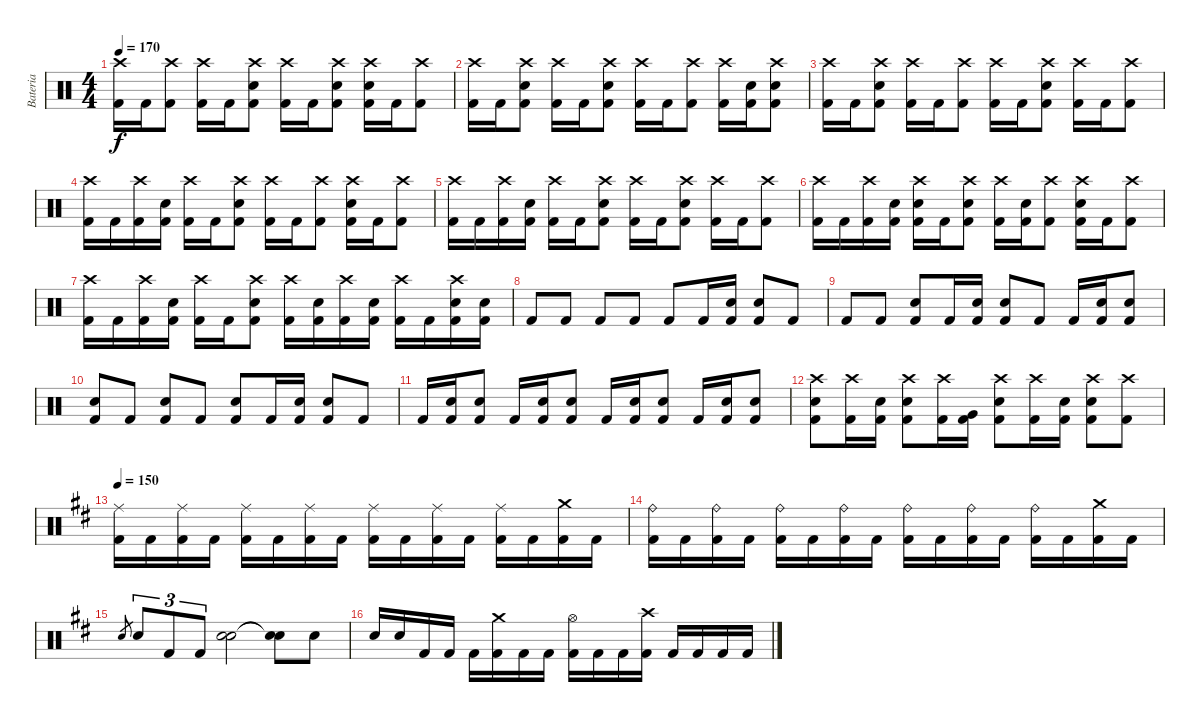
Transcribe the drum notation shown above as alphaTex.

\track ("Bateria" "Bateria") {instrument percussion}
\staff {score}
\articulation defaults
\ts (4 4)
\tempo 170
\clef neutral
\ks c
("Crash high (hit)" "Kick (hit) 2").16{dy f} "Kick (hit) 2".16 ("Crash high (hit)" "Kick (hit) 2").8 ("Crash high (hit)" "Kick (hit) 2").16 "Kick (hit) 2".16 ("Crash high (hit)" "Snare (hit) 2" "Kick (hit) 2").8 ("Crash high (hit)" "Kick (hit) 2").16 "Kick (hit) 2".16 ("Crash high (hit)" "Snare (hit) 2" "Kick (hit) 2").8 ("Crash high (hit)" "Snare (hit) 2" "Kick (hit) 2").16 "Kick (hit) 2".16 ("Crash high (hit)" "Kick (hit) 2").8 |
("Crash high (hit)" "Kick (hit) 2").16 "Kick (hit) 2".16 ("Crash high (hit)" "Snare (hit) 2" "Kick (hit) 2").8 ("Crash high (hit)" "Kick (hit) 2").16 "Kick (hit) 2".16 ("Crash high (hit)" "Snare (hit) 2" "Kick (hit) 2").8 ("Crash high (hit)" "Kick (hit) 2").16 "Kick (hit) 2".16 ("Crash high (hit)" "Kick (hit) 2").8 ("Crash high (hit)" "Kick (hit) 2").16 ("Snare (hit) 2" "Kick (hit) 2").16 ("Crash high (hit)" "Snare (hit) 2" "Kick (hit) 2").8 |
("Crash high (hit)" "Kick (hit) 2").16 "Kick (hit) 2".16 ("Crash high (hit)" "Snare (hit) 2" "Kick (hit) 2").8 ("Crash high (hit)" "Kick (hit) 2").16 "Kick (hit) 2".16 ("Crash high (hit)" "Kick (hit) 2").8 ("Crash high (hit)" "Kick (hit) 2").16 "Kick (hit) 2".16 ("Crash high (hit)" "Snare (hit) 2" "Kick (hit) 2").8 ("Crash high (hit)" "Kick (hit) 2").16 "Kick (hit) 2".16 ("Crash high (hit)" "Kick (hit) 2").8 |
("Crash high (hit)" "Kick (hit) 2").16 "Kick (hit) 2".16 ("Crash high (hit)" "Kick (hit) 2").16 ("Snare (hit) 2" "Kick (hit) 2").16 ("Crash high (hit)" "Kick (hit) 2").16 "Kick (hit) 2".16 ("Crash high (hit)" "Snare (hit) 2" "Kick (hit) 2").8 ("Crash high (hit)" "Kick (hit) 2").16 "Kick (hit) 2".16 ("Crash high (hit)" "Kick (hit) 2").8 ("Crash high (hit)" "Snare (hit) 2" "Kick (hit) 2").16 "Kick (hit) 2".16 ("Crash high (hit)" "Kick (hit) 2").8 |
("Crash high (hit)" "Kick (hit) 2").16 "Kick (hit) 2".16 ("Crash high (hit)" "Kick (hit) 2").16 ("Snare (hit) 2" "Kick (hit) 2").16 ("Crash high (hit)" "Kick (hit) 2").16 "Kick (hit) 2".16 ("Crash high (hit)" "Snare (hit) 2" "Kick (hit) 2").8 ("Crash high (hit)" "Kick (hit) 2").16 "Kick (hit) 2".16 ("Crash high (hit)" "Snare (hit) 2" "Kick (hit) 2").8 ("Crash high (hit)" "Kick (hit) 2").16 "Kick (hit) 2".16 ("Crash high (hit)" "Kick (hit) 2").8 |
("Crash high (hit)" "Kick (hit) 2").16 "Kick (hit) 2".16 ("Crash high (hit)" "Kick (hit) 2").16 ("Snare (hit) 2" "Kick (hit) 2").16 ("Crash high (hit)" "Snare (hit) 2" "Kick (hit) 2").16 "Kick (hit) 2".16 ("Crash high (hit)" "Snare (hit) 2" "Kick (hit) 2").8 ("Crash high (hit)" "Kick (hit) 2").16 ("Snare (hit) 2" "Kick (hit) 2").16 ("Crash high (hit)" "Kick (hit) 2").8 ("Crash high (hit)" "Snare (hit) 2" "Kick (hit) 2").16 "Kick (hit) 2".16 ("Crash high (hit)" "Kick (hit) 2").8 |
("Crash high (hit)" "Kick (hit) 2").16 "Kick (hit) 2".16 ("Crash high (hit)" "Kick (hit) 2").16 ("Snare (hit) 2" "Kick (hit) 2").16 ("Crash high (hit)" "Kick (hit) 2").16 "Kick (hit) 2".16 ("Crash high (hit)" "Snare (hit) 2" "Kick (hit) 2").8 ("Crash high (hit)" "Kick (hit) 2").16 ("Snare (hit) 2" "Kick (hit) 2").16 ("Crash high (hit)" "Kick (hit) 2").16 ("Snare (hit) 2" "Kick (hit) 2").16 ("Crash high (hit)" "Kick (hit) 2").16 "Kick (hit) 2".16 ("Crash high (hit)" "Snare (hit) 2" "Kick (hit) 2").16 ("Snare (hit) 2" "Kick (hit) 2").16 |
"Kick (hit) 2".8 "Kick (hit) 2".8 "Kick (hit) 2".8 "Kick (hit) 2".8 "Kick (hit) 2".8 "Kick (hit) 2".16 ("Snare (hit) 2" "Kick (hit) 2").16 ("Snare (hit) 2" "Kick (hit) 2").8 "Kick (hit) 2".8 |
"Kick (hit) 2".8 "Kick (hit) 2".8 ("Snare (hit) 2" "Kick (hit) 2").8 "Kick (hit) 2".16 ("Snare (hit) 2" "Kick (hit) 2").16 ("Snare (hit) 2" "Kick (hit) 2").8 "Kick (hit) 2".8 "Kick (hit) 2".16 ("Snare (hit) 2" "Kick (hit) 2").16 ("Snare (hit) 2" "Kick (hit) 2").8 |
("Snare (hit) 2" "Kick (hit) 2").8 "Kick (hit) 2".8 ("Snare (hit) 2" "Kick (hit) 2").8 "Kick (hit) 2".8 ("Snare (hit) 2" "Kick (hit) 2").8 "Kick (hit) 2".16 ("Snare (hit) 2" "Kick (hit) 2").16 ("Snare (hit) 2" "Kick (hit) 2").8 "Kick (hit) 2".8 |
"Kick (hit) 2".16 ("Snare (hit) 2" "Kick (hit) 2").16 ("Snare (hit) 2" "Kick (hit) 2").8 "Kick (hit) 2".16 ("Snare (hit) 2" "Kick (hit) 2").16 ("Snare (hit) 2" "Kick (hit) 2").8 "Kick (hit) 2".16 ("Snare (hit) 2" "Kick (hit) 2").16 ("Snare (hit) 2" "Kick (hit) 2").8 "Kick (hit) 2".16 ("Snare (hit) 2" "Kick (hit) 2").16 ("Snare (hit) 2" "Kick (hit) 2").8 |
("Crash high (hit)" "Snare (hit) 2" "Kick (hit) 2").8 ("Crash high (hit)" "Kick (hit) 2").16 ("Snare (hit) 2" "Kick (hit) 2").16 ("Crash high (hit)" "Snare (hit) 2" "Kick (hit) 2").8 ("Crash high (hit)" "Kick (hit) 2").16 ("Very Low Tom (hit)" "Kick (hit) 2").16 ("Crash high (hit)" "Snare (hit) 2" "Kick (hit) 2").8 ("Crash high (hit)" "Kick (hit) 2").16 ("Snare (hit) 2" "Kick (hit) 2").16 ("Crash high (hit)" "Snare (hit) 2" "Kick (hit) 2").8 ("Crash high (hit)" "Kick (hit) 2").8 |
\tempo 150
\ks d
("Ride (middle)" "Kick (hit) 2").16{volume 12 balance 5} "Kick (hit) 2".16 ("Ride (middle)" "Kick (hit) 2").16 "Kick (hit) 2".16 ("Ride (middle)" "Kick (hit) 2").16 "Kick (hit) 2".16 ("Ride (middle)" "Kick (hit) 2").16 "Kick (hit) 2".16 ("Ride (middle)" "Kick (hit) 2").16 "Kick (hit) 2".16 ("Ride (middle)" "Kick (hit) 2").16 "Kick (hit) 2".16 ("Ride (middle)" "Kick (hit) 2").16 "Kick (hit) 2".16 ("Crash medium (hit)" "Kick (hit) 2").16 "Kick (hit) 2".16 |
("Ride (bell)" "Kick (hit) 2").16 "Kick (hit) 2".16 ("Ride (bell)" "Kick (hit) 2").16 "Kick (hit) 2".16 ("Ride (bell)" "Kick (hit) 2").16 "Kick (hit) 2".16 ("Ride (bell)" "Kick (hit) 2").16 "Kick (hit) 2".16 ("Ride (bell)" "Kick (hit) 2").16 "Kick (hit) 2".16 ("Ride (bell)" "Kick (hit) 2").16 "Kick (hit) 2".16 ("Ride (bell)" "Kick (hit) 2").16 "Kick (hit) 2".16 ("Crash medium (hit)" "Kick (hit) 2").16 "Kick (hit) 2".16 |
"Electric Snare (hit)".8{gr} "Electric Snare (hit)".8{tu (3 2)} "Kick (hit) 2".8{tu (3 2)} "Kick (hit) 2".8{tu (3 2)} ("Electric Snare (hit)" "Snare (hit) 2").2 ("Snare (hit)"{t} "Snare (hit)"{t}).8 "Electric Snare (hit)".8 |
"Electric Snare (hit)".16 "Electric Snare (hit)".16 "Kick (hit) 2".16 "Kick (hit) 2".16 "Kick (hit) 2".16 ("Crash medium (hit)" "Kick (hit) 2").16 "Kick (hit) 2".16 "Kick (hit) 2".16 ("Hi-Hat (open)" "Kick (hit) 2").16 "Kick (hit) 2".16 "Kick (hit) 2".16 ("Crash high (hit)" "Kick (hit) 2").16 "Kick (hit) 2".16 "Kick (hit) 2".16 "Kick (hit) 2".16 "Kick (hit) 2".16
